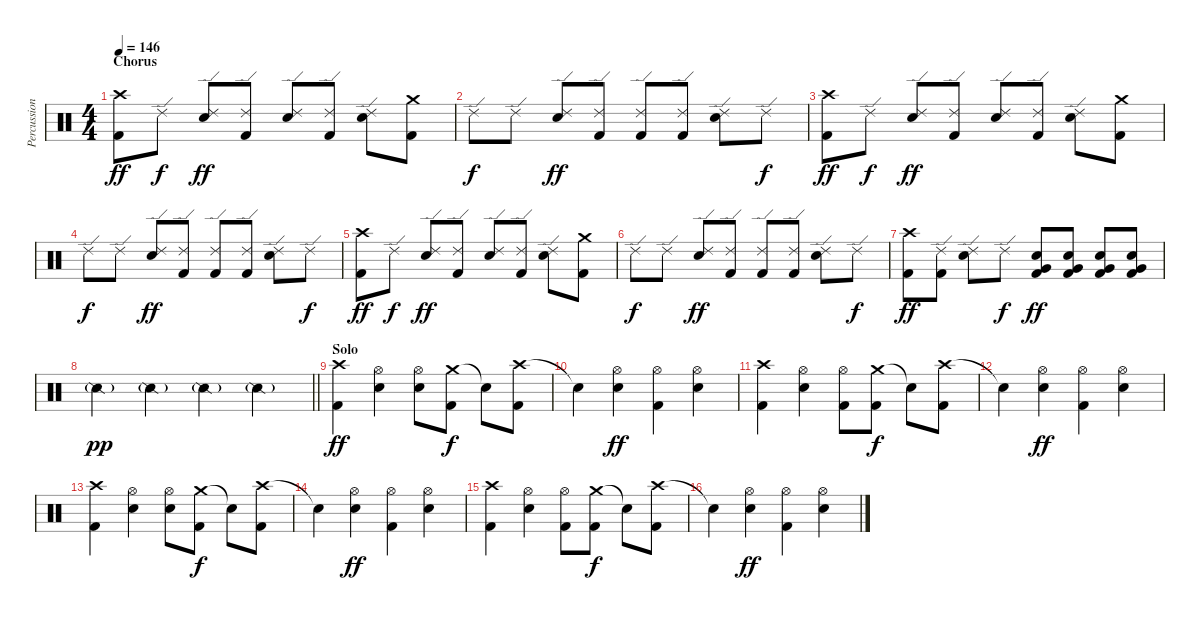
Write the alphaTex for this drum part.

\track ("Percussion" "Percussion") {instrument percussion}
\staff {score}
\articulation defaults
\ts (4 4)
\section ("" "Chorus")
\tempo 146
\clef neutral
\ks c
("Crash high (hit)" "Kick (hit) 2").8{dy ff} "Ride (edge) 2".8{dy f} ("Ride (edge) 2" "Snare (hit) 2").8{dy ff} ("Ride (edge) 2" "Kick (hit) 2").8 ("Ride (edge) 2" "Snare (hit) 2").8 ("Ride (edge) 2" "Kick (hit) 2").8 ("Ride (edge) 2" "Snare (hit) 2").8 ("Crash medium (hit)" "Kick (hit) 2").8 |
"Ride (edge) 2".8{dy f} "Ride (edge) 2".8 ("Ride (edge) 2" "Snare (hit) 2").8{dy ff} ("Ride (edge) 2" "Kick (hit) 2").8 ("Ride (edge) 2" "Kick (hit) 2").8 ("Ride (edge) 2" "Kick (hit) 2").8 ("Ride (edge) 2" "Snare (hit) 2").8 "Ride (edge) 2".8{dy f} |
("Crash high (hit)" "Kick (hit) 2").8{dy ff} "Ride (edge) 2".8{dy f} ("Ride (edge) 2" "Snare (hit) 2").8{dy ff} ("Ride (edge) 2" "Kick (hit) 2").8 ("Ride (edge) 2" "Snare (hit) 2").8 ("Ride (edge) 2" "Kick (hit) 2").8 ("Ride (edge) 2" "Snare (hit) 2").8 ("Crash medium (hit)" "Kick (hit) 2").8 |
"Ride (edge) 2".8{dy f} "Ride (edge) 2".8 ("Ride (edge) 2" "Snare (hit) 2").8{dy ff} ("Ride (edge) 2" "Kick (hit) 2").8 ("Ride (edge) 2" "Kick (hit) 2").8 ("Ride (edge) 2" "Kick (hit) 2").8 ("Ride (edge) 2" "Snare (hit) 2").8 "Ride (edge) 2".8{dy f} |
("Crash high (hit)" "Kick (hit) 2").8{dy ff} "Ride (edge) 2".8{dy f} ("Ride (edge) 2" "Snare (hit) 2").8{dy ff} ("Ride (edge) 2" "Kick (hit) 2").8 ("Ride (edge) 2" "Snare (hit) 2").8 ("Ride (edge) 2" "Kick (hit) 2").8 ("Ride (edge) 2" "Snare (hit) 2").8 ("Crash medium (hit)" "Kick (hit) 2").8 |
"Ride (edge) 2".8{dy f} "Ride (edge) 2".8 ("Ride (edge) 2" "Snare (hit) 2").8{dy ff} ("Ride (edge) 2" "Kick (hit) 2").8 ("Ride (edge) 2" "Kick (hit) 2").8 ("Ride (edge) 2" "Kick (hit) 2").8 ("Ride (edge) 2" "Snare (hit) 2").8 "Ride (edge) 2".8{dy f} |
("Crash high (hit)" "Kick (hit) 2").8{dy ff} ("Ride (edge) 2" "Kick (hit) 2").8 ("Ride (edge) 2" "Snare (hit) 2").8 "Ride (edge) 2".8{dy f} ("Very Low Tom (hit)" "Snare (hit) 2" "Kick (hit) 2").8{dy ff} ("Very Low Tom (hit)" "Snare (hit) 2" "Kick (hit) 2").8 ("Very Low Tom (hit)" "Snare (hit) 2" "Kick (hit) 2").8 ("Very Low Tom (hit)" "Snare (hit) 2" "Kick (hit) 2").8 |
\barLineRight lightlight "Snare (side stick) 2"{g}.4{dy pp} "Snare (side stick) 2"{g}.4 "Snare (side stick) 2"{g}.4 "Snare (side stick) 2"{g}.4
|
\section ("" "Solo")
("Crash high (hit)" "Kick (hit) 2").4{dy ff} ("Hi-Hat (open)" "Snare (hit) 2").4 ("Hi-Hat (open)" "Snare (hit) 2").8 ("Crash medium (hit)" "Kick (hit) 2").8{dy f} "Snare (hit)"{t}.8 ("Crash high (hit)" "Kick (hit) 2").8 |
"Snare (hit)"{t}.4 ("Hi-Hat (open)" "Snare (hit) 2").4{dy ff} ("Hi-Hat (open)" "Kick (hit) 2").4 ("Hi-Hat (open)" "Snare (hit) 2").4 |
("Crash high (hit)" "Kick (hit) 2").4 ("Hi-Hat (open)" "Snare (hit) 2").4 ("Hi-Hat (open)" "Kick (hit) 2").8 ("Crash medium (hit)" "Kick (hit) 2").8{dy f} "Snare (hit)"{t}.8 ("Crash high (hit)" "Kick (hit) 2").8 |
"Snare (hit)"{t}.4 ("Hi-Hat (open)" "Snare (hit) 2").4{dy ff} ("Hi-Hat (open)" "Kick (hit) 2").4 ("Hi-Hat (open)" "Snare (hit) 2").4 |
("Crash high (hit)" "Kick (hit) 2").4 ("Hi-Hat (open)" "Snare (hit) 2").4 ("Hi-Hat (open)" "Snare (hit) 2").8 ("Crash medium (hit)" "Kick (hit) 2").8{dy f} "Snare (hit)"{t}.8 ("Crash high (hit)" "Kick (hit) 2").8 |
"Snare (hit)"{t}.4 ("Hi-Hat (open)" "Snare (hit) 2").4{dy ff} ("Hi-Hat (open)" "Kick (hit) 2").4 ("Hi-Hat (open)" "Snare (hit) 2").4 |
("Crash high (hit)" "Kick (hit) 2").4 ("Hi-Hat (open)" "Snare (hit) 2").4 ("Hi-Hat (open)" "Kick (hit) 2").8 ("Crash medium (hit)" "Kick (hit) 2").8{dy f} "Snare (hit)"{t}.8 ("Crash high (hit)" "Kick (hit) 2").8 |
"Snare (hit)"{t}.4 ("Hi-Hat (open)" "Snare (hit) 2").4{dy ff} ("Hi-Hat (open)" "Kick (hit) 2").4 ("Hi-Hat (open)" "Snare (hit) 2").4
